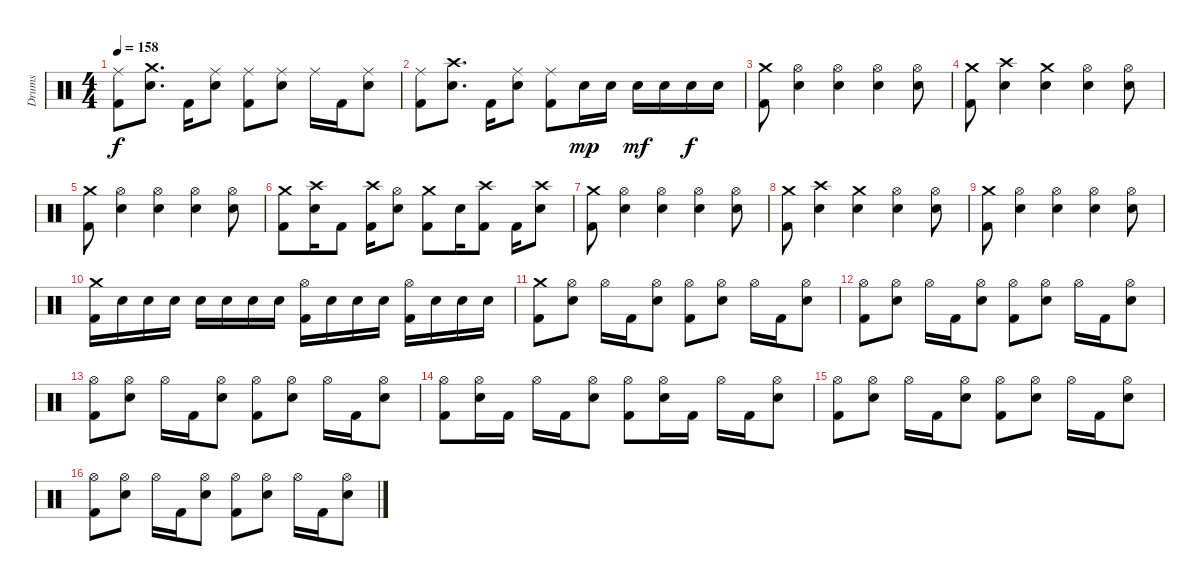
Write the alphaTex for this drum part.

\track ("Drums" "Drums") {instrument percussion}
\staff {score}
\articulation defaults
\ts (4 4)
\tempo 158
\clef neutral
\ks c
("Ride (middle)" "Kick (hit) 2").8{dy f} ("Crash medium (hit)" "Electric Snare (hit)").8{d} "Kick (hit) 2".16 ("Ride (middle)" "Electric Snare (hit)").8 ("Ride (middle)" "Kick (hit) 2").8 ("Ride (middle)" "Electric Snare (hit)").8 "Ride (middle)".16 "Kick (hit) 2".16 ("Ride (middle)" "Electric Snare (hit)").8 |
("Ride (middle)" "Kick (hit) 2").8 ("Crash high (hit)" "Electric Snare (hit)").8{d} "Kick (hit) 2".16 ("Ride (middle)" "Electric Snare (hit)").8 ("Ride (middle)" "Kick (hit) 2").8 "Electric Snare (hit)".16{dy mp} "Electric Snare (hit)".16 "Electric Snare (hit)".16{dy mf} "Electric Snare (hit)".16 "Electric Snare (hit)".16{dy f} "Electric Snare (hit)".16 |
("Crash medium (hit)" "Kick (hit) 2").8 ("Hi-Hat (open)" "Electric Snare (hit)").4 ("Hi-Hat (open)" "Electric Snare (hit)").4 ("Hi-Hat (open)" "Electric Snare (hit)").4 ("Hi-Hat (open)" "Electric Snare (hit)").8 |
("Crash medium (hit)" "Kick (hit) 2").8 ("Crash high (hit)" "Electric Snare (hit)").4 ("Crash medium (hit)" "Electric Snare (hit)").4 ("Hi-Hat (open)" "Electric Snare (hit)").4 ("Hi-Hat (open)" "Electric Snare (hit)").8 |
("Crash medium (hit)" "Kick (hit) 2").8 ("Hi-Hat (open)" "Electric Snare (hit)").4 ("Hi-Hat (open)" "Electric Snare (hit)").4 ("Hi-Hat (open)" "Electric Snare (hit)").4 ("Hi-Hat (open)" "Electric Snare (hit)").8 |
("Crash medium (hit)" "Kick (hit) 2").8 ("Crash high (hit)" "Electric Snare (hit)").16 "Kick (hit) 2".8 ("Crash high (hit)" "Kick (hit) 2").16 ("Hi-Hat (open)" "Electric Snare (hit)").8 ("Crash medium (hit)" "Kick (hit) 2").8 "Electric Snare (hit)".16 ("Crash high (hit)" "Kick (hit) 2").8 "Kick (hit) 2".16 ("Crash high (hit)" "Electric Snare (hit)").8 |
("Crash medium (hit)" "Kick (hit) 2").8 ("Hi-Hat (open)" "Electric Snare (hit)").4 ("Hi-Hat (open)" "Electric Snare (hit)").4 ("Hi-Hat (open)" "Electric Snare (hit)").4 ("Hi-Hat (open)" "Electric Snare (hit)").8 |
("Crash medium (hit)" "Kick (hit) 2").8 ("Crash high (hit)" "Electric Snare (hit)").4 ("Crash medium (hit)" "Electric Snare (hit)").4 ("Hi-Hat (open)" "Electric Snare (hit)").4 ("Hi-Hat (open)" "Electric Snare (hit)").8 |
("Crash medium (hit)" "Kick (hit) 2").8 ("Hi-Hat (open)" "Electric Snare (hit)").4 ("Hi-Hat (open)" "Electric Snare (hit)").4 ("Hi-Hat (open)" "Electric Snare (hit)").4 ("Hi-Hat (open)" "Electric Snare (hit)").8 |
("Crash medium (hit)" "Kick (hit) 2").16 "Electric Snare (hit)".16 "Electric Snare (hit)".16 "Electric Snare (hit)".16 "Electric Snare (hit)".16 "Electric Snare (hit)".16 "Electric Snare (hit)".16 "Electric Snare (hit)".16 ("Hi-Hat (open)" "Kick (hit) 2").16 "Electric Snare (hit)".16 "Electric Snare (hit)".16 "Electric Snare (hit)".16 ("Hi-Hat (open)" "Kick (hit) 2").16 "Electric Snare (hit)".16 "Electric Snare (hit)".16 "Electric Snare (hit)".16 |
("Crash medium (hit)" "Kick (hit) 2").8 ("Hi-Hat (open)" "Electric Snare (hit)").8 "Hi-Hat (open)".16 "Kick (hit) 2".16 ("Hi-Hat (open)" "Electric Snare (hit)").8 ("Hi-Hat (open)" "Kick (hit) 2").8 ("Hi-Hat (open)" "Electric Snare (hit)").8 "Hi-Hat (open)".16 "Kick (hit) 2".16 ("Hi-Hat (open)" "Electric Snare (hit)").8 |
("Hi-Hat (open)" "Kick (hit) 2").8 ("Hi-Hat (open)" "Electric Snare (hit)").8 "Hi-Hat (open)".16 "Kick (hit) 2".16 ("Hi-Hat (open)" "Electric Snare (hit)").8 ("Hi-Hat (open)" "Kick (hit) 2").8 ("Hi-Hat (open)" "Electric Snare (hit)").8 "Hi-Hat (open)".16 "Kick (hit) 2".16 ("Hi-Hat (open)" "Electric Snare (hit)").8 |
("Hi-Hat (open)" "Kick (hit) 2").8 ("Hi-Hat (open)" "Electric Snare (hit)").8 "Hi-Hat (open)".16 "Kick (hit) 2".16 ("Hi-Hat (open)" "Electric Snare (hit)").8 ("Hi-Hat (open)" "Kick (hit) 2").8 ("Hi-Hat (open)" "Electric Snare (hit)").8 "Hi-Hat (open)".16 "Kick (hit) 2".16 ("Hi-Hat (open)" "Electric Snare (hit)").8 |
("Hi-Hat (open)" "Kick (hit) 2").8 ("Hi-Hat (open)" "Electric Snare (hit)").16 "Kick (hit) 2".16 "Hi-Hat (open)".16 "Kick (hit) 2".16 ("Hi-Hat (open)" "Electric Snare (hit)").8 ("Hi-Hat (open)" "Kick (hit) 2").8 ("Hi-Hat (open)" "Electric Snare (hit)").16 "Kick (hit) 2".16 "Hi-Hat (open)".16 "Kick (hit) 2".16 ("Hi-Hat (open)" "Electric Snare (hit)").8 |
("Hi-Hat (open)" "Kick (hit) 2").8 ("Hi-Hat (open)" "Electric Snare (hit)").8 "Hi-Hat (open)".16 "Kick (hit) 2".16 ("Hi-Hat (open)" "Electric Snare (hit)").8 ("Hi-Hat (open)" "Kick (hit) 2").8 ("Hi-Hat (open)" "Electric Snare (hit)").8 "Hi-Hat (open)".16 "Kick (hit) 2".16 ("Hi-Hat (open)" "Electric Snare (hit)").8 |
("Hi-Hat (open)" "Kick (hit) 2").8 ("Hi-Hat (open)" "Electric Snare (hit)").8 "Hi-Hat (open)".16 "Kick (hit) 2".16 ("Hi-Hat (open)" "Electric Snare (hit)").8 ("Hi-Hat (open)" "Kick (hit) 2").8 ("Hi-Hat (open)" "Electric Snare (hit)").8 "Hi-Hat (open)".16 "Kick (hit) 2".16 ("Hi-Hat (open)" "Electric Snare (hit)").8
